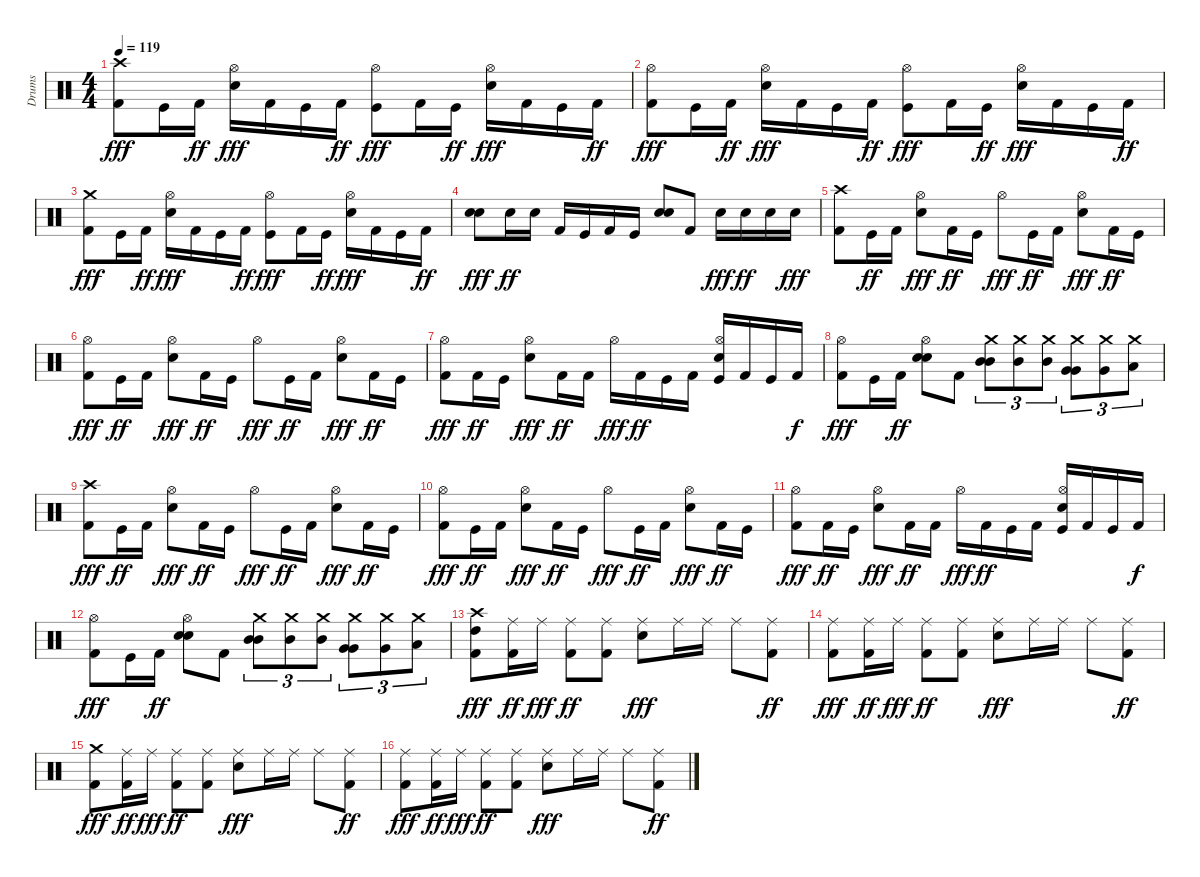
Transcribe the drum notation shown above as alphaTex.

\track ("Drums" "Drums") {instrument percussion}
\staff {score}
\articulation defaults
\ts (4 4)
\tempo 119
\clef neutral
\ks c
("Kick (hit) 2" "Crash high (hit)").8{dy fff} "Kick (hit)".16 "Kick (hit) 2".16{dy ff} ("Hi-Hat (open)" "Snare (hit) 2").16{dy fff} "Kick (hit) 2".16 "Kick (hit)".16 "Kick (hit) 2".16{dy ff} ("Hi-Hat (open)" "Kick (hit)").8{dy fff} "Kick (hit) 2".16 "Kick (hit)".16{dy ff} ("Hi-Hat (open)" "Snare (hit) 2").16{dy fff} "Kick (hit) 2".16 "Kick (hit)".16 "Kick (hit) 2".16{dy ff} |
("Hi-Hat (open)" "Kick (hit) 2").8{dy fff} "Kick (hit)".16 "Kick (hit) 2".16{dy ff} ("Hi-Hat (open)" "Snare (hit) 2").16{dy fff} "Kick (hit) 2".16 "Kick (hit)".16 "Kick (hit) 2".16{dy ff} ("Hi-Hat (open)" "Kick (hit)").8{dy fff} "Kick (hit) 2".16 "Kick (hit)".16{dy ff} ("Hi-Hat (open)" "Snare (hit) 2").16{dy fff} "Kick (hit) 2".16 "Kick (hit)".16 "Kick (hit) 2".16{dy ff} |
("Kick (hit) 2" "Crash medium (hit)").8{dy fff} "Kick (hit)".16 "Kick (hit) 2".16{dy ff} ("Hi-Hat (open)" "Snare (hit) 2").16{dy fff} "Kick (hit) 2".16 "Kick (hit)".16 "Kick (hit) 2".16{dy ff} ("Hi-Hat (open)" "Kick (hit)").8{dy fff} "Kick (hit) 2".16 "Kick (hit)".16{dy ff} ("Hi-Hat (open)" "Snare (hit) 2").16{dy fff} "Kick (hit) 2".16 "Kick (hit)".16 "Kick (hit) 2".16{dy ff} |
("Snare (hit) 2" "Snare (hit) 2").8{dy fff} "Snare (hit) 2".16{dy ff} "Snare (hit) 2".16 "Kick (hit) 2".16 "Kick (hit)".16 "Kick (hit) 2".16 "Kick (hit)".16 ("Snare (hit) 2" "Snare (hit) 2").8 "Kick (hit) 2".8 "Snare (hit) 2".16{dy fff} "Snare (hit) 2".16{dy ff} "Snare (hit) 2".16 "Snare (hit) 2".16{dy fff} |
("Kick (hit) 2" "Crash high (hit)").8 "Kick (hit)".16{dy ff} "Kick (hit) 2".16 ("Hi-Hat (open)" "Snare (hit) 2").8{dy fff} "Kick (hit) 2".16{dy ff} "Kick (hit)".16 "Hi-Hat (open)".8{dy fff} "Kick (hit)".16{dy ff} "Kick (hit) 2".16 ("Hi-Hat (open)" "Snare (hit) 2").8{dy fff} "Kick (hit) 2".16{dy ff} "Kick (hit)".16 |
("Hi-Hat (open)" "Kick (hit) 2").8{dy fff} "Kick (hit)".16{dy ff} "Kick (hit) 2".16 ("Hi-Hat (open)" "Snare (hit) 2").8{dy fff} "Kick (hit) 2".16{dy ff} "Kick (hit)".16 "Hi-Hat (open)".8{dy fff} "Kick (hit)".16{dy ff} "Kick (hit) 2".16 ("Hi-Hat (open)" "Snare (hit) 2").8{dy fff} "Kick (hit) 2".16{dy ff} "Kick (hit)".16 |
("Hi-Hat (open)" "Kick (hit) 2").8{dy fff} "Kick (hit) 2".16{dy ff} "Kick (hit)".16 ("Hi-Hat (open)" "Snare (hit) 2").8{dy fff} "Kick (hit) 2".16{dy ff} "Kick (hit) 2".16 "Hi-Hat (open)".16{dy fff} "Kick (hit) 2".16{dy ff} "Kick (hit)".16 "Kick (hit) 2".16 ("Hi-Hat (open)" "Snare (hit) 2" "Kick (hit)").16 "Kick (hit) 2".16 "Kick (hit)".16 "Kick (hit) 2".16{dy f} |
("Hi-Hat (open)" "Kick (hit) 2").8{dy fff} "Kick (hit)".16 "Kick (hit) 2".16{dy ff} ("Hi-Hat (open)" "Snare (hit) 2" "Snare (hit) 2").8 "Kick (hit) 2".8 ("Mid Tom (hit)" "Crash medium (hit)" "Mid Tom (hit)").8{tu (3 2)} ("Mid Tom (hit)" "Crash medium (hit)").8{tu (3 2)} ("Mid Tom (hit)" "Crash medium (hit)").8{tu (3 2)} ("Very Low Tom (hit)" "Crash medium (hit)" "Very Low Tom (hit)").8{tu (3 2)} ("Very Low Tom (hit)" "Crash medium (hit)").8{tu (3 2)} ("Low Floor Tom (hit)" "Crash medium (hit)").8{tu (3 2)} |
("Kick (hit) 2" "Crash high (hit)").8{dy fff} "Kick (hit)".16{dy ff} "Kick (hit) 2".16 ("Hi-Hat (open)" "Snare (hit) 2").8{dy fff} "Kick (hit) 2".16{dy ff} "Kick (hit)".16 "Hi-Hat (open)".8{dy fff} "Kick (hit)".16{dy ff} "Kick (hit) 2".16 ("Hi-Hat (open)" "Snare (hit) 2").8{dy fff} "Kick (hit) 2".16{dy ff} "Kick (hit)".16 |
("Hi-Hat (open)" "Kick (hit) 2").8{dy fff} "Kick (hit)".16{dy ff} "Kick (hit) 2".16 ("Hi-Hat (open)" "Snare (hit) 2").8{dy fff} "Kick (hit) 2".16{dy ff} "Kick (hit)".16 "Hi-Hat (open)".8{dy fff} "Kick (hit)".16{dy ff} "Kick (hit) 2".16 ("Hi-Hat (open)" "Snare (hit) 2").8{dy fff} "Kick (hit) 2".16{dy ff} "Kick (hit)".16 |
("Hi-Hat (open)" "Kick (hit) 2").8{dy fff} "Kick (hit) 2".16{dy ff} "Kick (hit)".16 ("Hi-Hat (open)" "Snare (hit) 2").8{dy fff} "Kick (hit) 2".16{dy ff} "Kick (hit) 2".16 "Hi-Hat (open)".16{dy fff} "Kick (hit) 2".16{dy ff} "Kick (hit)".16 "Kick (hit) 2".16 ("Hi-Hat (open)" "Snare (hit) 2" "Kick (hit)").16 "Kick (hit) 2".16 "Kick (hit)".16 "Kick (hit) 2".16{dy f} |
("Hi-Hat (open)" "Kick (hit) 2").8{dy fff} "Kick (hit)".16 "Kick (hit) 2".16{dy ff} ("Hi-Hat (open)" "Snare (hit) 2" "Snare (hit) 2").8 "Kick (hit) 2".8 ("Mid Tom (hit)" "Crash medium (hit)" "Mid Tom (hit)").8{tu (3 2)} ("Mid Tom (hit)" "Crash medium (hit)").8{tu (3 2)} ("Mid Tom (hit)" "Crash medium (hit)").8{tu (3 2)} ("Very Low Tom (hit)" "Crash medium (hit)" "Very Low Tom (hit)").8{tu (3 2)} ("Very Low Tom (hit)" "Crash medium (hit)").8{tu (3 2)} ("Low Floor Tom (hit)" "Crash medium (hit)").8{tu (3 2)} |
("Crash high (hit)" "Kick (hit) 2" "High Tom (hit)").8{dy fff} ("Ride (middle)" "Kick (hit) 2").16{dy ff} "Ride (middle)".16{dy fff} ("Ride (middle)" "Kick (hit) 2").8{dy ff} ("Ride (middle)" "Kick (hit) 2").8 ("Ride (middle)" "Snare (hit) 2").8{dy fff} "Ride (middle)".16 "Ride (middle)".16 "Ride (middle)".8 ("Ride (middle)" "Kick (hit) 2").8{dy ff} |
("Ride (middle)" "Kick (hit) 2").8{dy fff} ("Ride (middle)" "Kick (hit) 2").16{dy ff} "Ride (middle)".16{dy fff} ("Ride (middle)" "Kick (hit) 2").8{dy ff} ("Ride (middle)" "Kick (hit) 2").8 ("Ride (middle)" "Snare (hit) 2").8{dy fff} "Ride (middle)".16 "Ride (middle)".16 "Ride (middle)".8 ("Ride (middle)" "Kick (hit) 2").8{dy ff} |
("Kick (hit) 2" "Crash medium (hit)").8{dy fff} ("Ride (middle)" "Kick (hit) 2").16{dy ff} "Ride (middle)".16{dy fff} ("Ride (middle)" "Kick (hit) 2").8{dy ff} ("Ride (middle)" "Kick (hit) 2").8 ("Ride (middle)" "Snare (hit) 2").8{dy fff} "Ride (middle)".16 "Ride (middle)".16 "Ride (middle)".8 ("Ride (middle)" "Kick (hit) 2").8{dy ff} |
("Ride (middle)" "Kick (hit) 2").8{dy fff} ("Ride (middle)" "Kick (hit) 2").16{dy ff} "Ride (middle)".16{dy fff} ("Ride (middle)" "Kick (hit) 2").8{dy ff} ("Ride (middle)" "Kick (hit) 2").8 ("Ride (middle)" "Snare (hit) 2").8{dy fff} "Ride (middle)".16 "Ride (middle)".16 "Ride (middle)".8 ("Ride (middle)" "Kick (hit) 2").8{dy ff}
